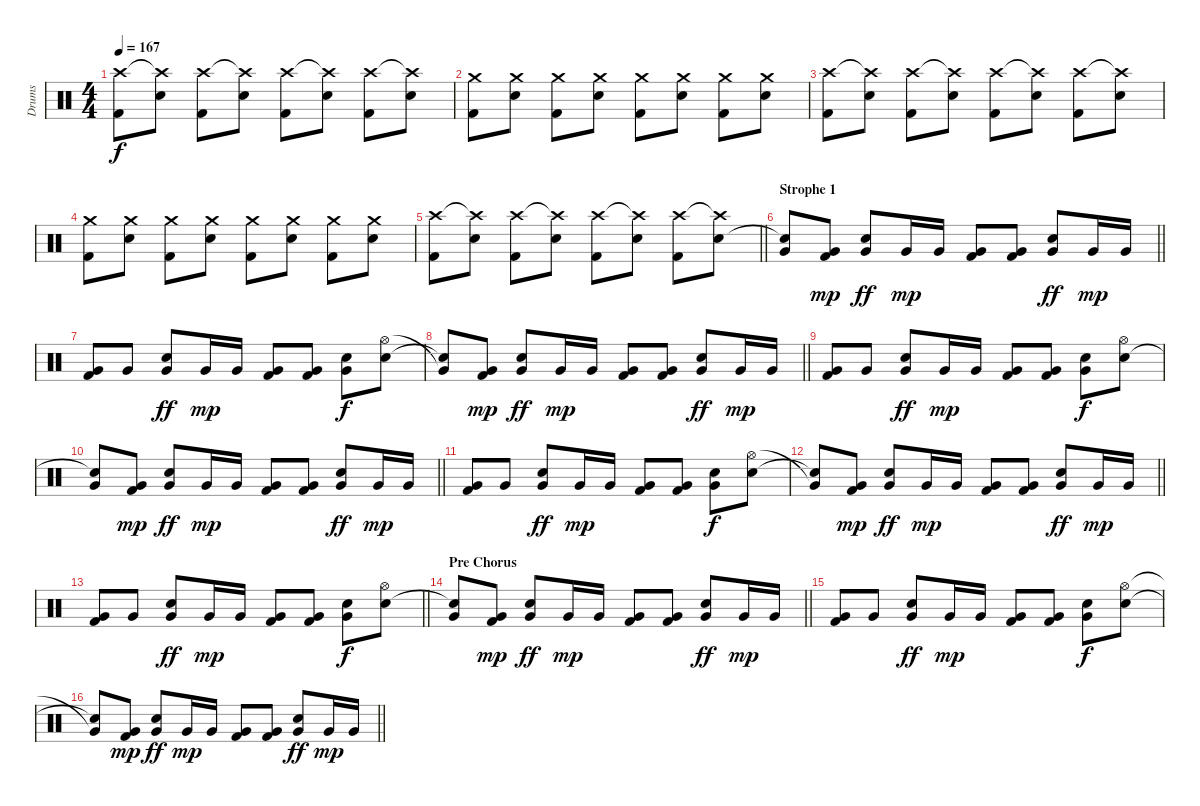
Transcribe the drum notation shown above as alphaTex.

\track ("Drums" "Drums") {instrument percussion}
\staff {score}
\articulation defaults
\ts (4 4)
\tempo 167
\clef neutral
\ks c
("Crash high (hit)" "Kick (hit) 2").8{dy f} ("Crash high (hit)"{t} "Snare (hit) 2").8 ("Crash high (hit)" "Kick (hit) 2").8 ("Crash high (hit)"{t} "Snare (hit) 2").8 ("Crash high (hit)" "Kick (hit) 2").8 ("Crash high (hit)"{t} "Snare (hit) 2").8 ("Crash high (hit)" "Kick (hit) 2").8 ("Crash high (hit)"{t} "Snare (hit) 2").8 |
("Crash medium (hit)" "Kick (hit) 2").8 ("Crash medium (hit)" "Snare (hit) 2").8 ("Crash medium (hit)" "Kick (hit) 2").8 ("Crash medium (hit)" "Snare (hit) 2").8 ("Crash medium (hit)" "Kick (hit) 2").8 ("Crash medium (hit)" "Snare (hit) 2").8 ("Crash medium (hit)" "Kick (hit) 2").8 ("Crash medium (hit)" "Snare (hit) 2").8 |
("Crash high (hit)" "Kick (hit) 2").8 ("Crash high (hit)"{t} "Snare (hit) 2").8 ("Crash high (hit)" "Kick (hit) 2").8 ("Crash high (hit)"{t} "Snare (hit) 2").8 ("Crash high (hit)" "Kick (hit) 2").8 ("Crash high (hit)"{t} "Snare (hit) 2").8 ("Crash high (hit)" "Kick (hit) 2").8 ("Crash high (hit)"{t} "Snare (hit) 2").8 |
("Crash medium (hit)" "Kick (hit) 2").8 ("Crash medium (hit)" "Snare (hit) 2").8 ("Crash medium (hit)" "Kick (hit) 2").8 ("Crash medium (hit)" "Snare (hit) 2").8 ("Crash medium (hit)" "Kick (hit) 2").8 ("Crash medium (hit)" "Snare (hit) 2").8 ("Crash medium (hit)" "Kick (hit) 2").8 ("Crash medium (hit)" "Snare (hit) 2").8 |
\barLineRight lightlight
("Crash high (hit)" "Kick (hit) 2").8 ("Crash high (hit)"{t} "Snare (hit) 2").8 ("Crash high (hit)" "Kick (hit) 2").8 ("Crash high (hit)"{t} "Snare (hit) 2").8 ("Crash high (hit)" "Kick (hit) 2").8 ("Crash high (hit)"{t} "Snare (hit) 2").8 ("Crash high (hit)" "Kick (hit) 2").8 ("Crash high (hit)"{t} "Snare (hit) 2").8 |
\section ("" "Strophe 1")
\barLineRight lightlight
("Very Low Tom (hit)" "Snare (hit)"{t}).8 ("Very Low Tom (hit)" "Kick (hit) 2").8{dy mp} ("Very Low Tom (hit)" "Snare (hit) 2").8{dy ff} "Very Low Tom (hit)".16{dy mp} "Very Low Tom (hit)".16 ("Very Low Tom (hit)" "Kick (hit) 2").8 ("Very Low Tom (hit)" "Kick (hit) 2").8 ("Very Low Tom (hit)" "Snare (hit) 2").8{dy ff} "Very Low Tom (hit)".16{dy mp} "Very Low Tom (hit)".16 |
("Very Low Tom (hit)" "Kick (hit) 2").8 "Very Low Tom (hit)".8 ("Very Low Tom (hit)" "Snare (hit) 2").8{dy ff} "Very Low Tom (hit)".16{dy mp} "Very Low Tom (hit)".16 ("Very Low Tom (hit)" "Kick (hit) 2").8 ("Very Low Tom (hit)" "Kick (hit) 2").8 ("Very Low Tom (hit)" "Snare (hit) 2").8{dy f} ("Hi-Hat (open)" "Snare (hit) 2").8 |
\barLineRight lightlight
("Very Low Tom (hit)"{t} "Snare (hit)"{t}).8 ("Very Low Tom (hit)" "Kick (hit) 2").8{dy mp} ("Very Low Tom (hit)" "Snare (hit) 2").8{dy ff} "Very Low Tom (hit)".16{dy mp} "Very Low Tom (hit)".16 ("Very Low Tom (hit)" "Kick (hit) 2").8 ("Very Low Tom (hit)" "Kick (hit) 2").8 ("Very Low Tom (hit)" "Snare (hit) 2").8{dy ff} "Very Low Tom (hit)".16{dy mp} "Very Low Tom (hit)".16 |
("Very Low Tom (hit)" "Kick (hit) 2").8 "Very Low Tom (hit)".8 ("Very Low Tom (hit)" "Snare (hit) 2").8{dy ff} "Very Low Tom (hit)".16{dy mp} "Very Low Tom (hit)".16 ("Very Low Tom (hit)" "Kick (hit) 2").8 ("Very Low Tom (hit)" "Kick (hit) 2").8 ("Very Low Tom (hit)" "Snare (hit) 2").8{dy f} ("Hi-Hat (open)" "Snare (hit) 2").8 |
\barLineRight lightlight
("Very Low Tom (hit)" "Snare (hit)"{t}).8 ("Very Low Tom (hit)" "Kick (hit) 2").8{dy mp} ("Very Low Tom (hit)" "Snare (hit) 2").8{dy ff} "Very Low Tom (hit)".16{dy mp} "Very Low Tom (hit)".16 ("Very Low Tom (hit)" "Kick (hit) 2").8 ("Very Low Tom (hit)" "Kick (hit) 2").8 ("Very Low Tom (hit)" "Snare (hit) 2").8{dy ff} "Very Low Tom (hit)".16{dy mp} "Very Low Tom (hit)".16 |
("Very Low Tom (hit)" "Kick (hit) 2").8 "Very Low Tom (hit)".8 ("Very Low Tom (hit)" "Snare (hit) 2").8{dy ff} "Very Low Tom (hit)".16{dy mp} "Very Low Tom (hit)".16 ("Very Low Tom (hit)" "Kick (hit) 2").8 ("Very Low Tom (hit)" "Kick (hit) 2").8 ("Very Low Tom (hit)" "Snare (hit) 2").8{dy f} ("Hi-Hat (open)" "Snare (hit) 2").8 |
\barLineRight lightlight
("Very Low Tom (hit)"{t} "Snare (hit)"{t}).8 ("Very Low Tom (hit)" "Kick (hit) 2").8{dy mp} ("Very Low Tom (hit)" "Snare (hit) 2").8{dy ff} "Very Low Tom (hit)".16{dy mp} "Very Low Tom (hit)".16 ("Very Low Tom (hit)" "Kick (hit) 2").8 ("Very Low Tom (hit)" "Kick (hit) 2").8 ("Very Low Tom (hit)" "Snare (hit) 2").8{dy ff} "Very Low Tom (hit)".16{dy mp} "Very Low Tom (hit)".16 |
\barLineRight lightlight
("Very Low Tom (hit)" "Kick (hit) 2").8 "Very Low Tom (hit)".8 ("Very Low Tom (hit)" "Snare (hit) 2").8{dy ff} "Very Low Tom (hit)".16{dy mp} "Very Low Tom (hit)".16 ("Very Low Tom (hit)" "Kick (hit) 2").8 ("Very Low Tom (hit)" "Kick (hit) 2").8 ("Very Low Tom (hit)" "Snare (hit) 2").8{dy f} ("Hi-Hat (open)" "Snare (hit) 2").8 |
\section ("" "Pre Chorus")
\barLineRight lightlight
("Very Low Tom (hit)" "Snare (hit)"{t}).8 ("Very Low Tom (hit)" "Kick (hit) 2").8{dy mp} ("Very Low Tom (hit)" "Snare (hit) 2").8{dy ff} "Very Low Tom (hit)".16{dy mp} "Very Low Tom (hit)".16 ("Very Low Tom (hit)" "Kick (hit) 2").8 ("Very Low Tom (hit)" "Kick (hit) 2").8 ("Very Low Tom (hit)" "Snare (hit) 2").8{dy ff} "Very Low Tom (hit)".16{dy mp} "Very Low Tom (hit)".16 |
("Very Low Tom (hit)" "Kick (hit) 2").8 "Very Low Tom (hit)".8 ("Very Low Tom (hit)" "Snare (hit) 2").8{dy ff} "Very Low Tom (hit)".16{dy mp} "Very Low Tom (hit)".16 ("Very Low Tom (hit)" "Kick (hit) 2").8 ("Very Low Tom (hit)" "Kick (hit) 2").8 ("Very Low Tom (hit)" "Snare (hit) 2").8{dy f} ("Hi-Hat (open)" "Snare (hit) 2").8 |
\barLineRight lightlight
("Very Low Tom (hit)"{t} "Snare (hit)"{t}).8 ("Very Low Tom (hit)" "Kick (hit) 2").8{dy mp} ("Very Low Tom (hit)" "Snare (hit) 2").8{dy ff} "Very Low Tom (hit)".16{dy mp} "Very Low Tom (hit)".16 ("Very Low Tom (hit)" "Kick (hit) 2").8 ("Very Low Tom (hit)" "Kick (hit) 2").8 ("Very Low Tom (hit)" "Snare (hit) 2").8{dy ff} "Very Low Tom (hit)".16{dy mp} "Very Low Tom (hit)".16
